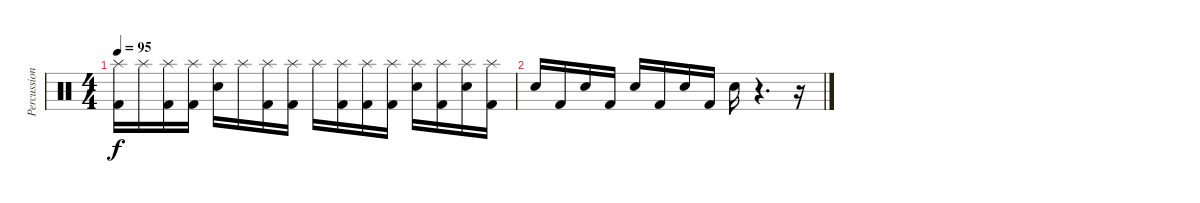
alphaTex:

\track ("Percussion" "Percussion") {instrument percussion}
\staff {score}
\articulation defaults
\ts (4 4)
\tempo 95
\clef neutral
\ks c
("Splash (hit)" "Kick (hit) 2").16{dy f} "Splash (hit)".16 ("Splash (hit)" "Kick (hit) 2").16 ("Splash (hit)" "Kick (hit) 2").16 ("Splash (hit)" "Electric Snare (hit)").16 "Splash (hit)".16 ("Splash (hit)" "Kick (hit) 2").16 ("Splash (hit)" "Kick (hit) 2").16 "Splash (hit)".16 ("Splash (hit)" "Kick (hit) 2").16 ("Splash (hit)" "Kick (hit) 2").16 ("Splash (hit)" "Kick (hit) 2").16 ("Splash (hit)" "Electric Snare (hit)").16 ("Splash (hit)" "Kick (hit) 2").16 ("Splash (hit)" "Electric Snare (hit)").16 ("Splash (hit)" "Kick (hit) 2").16 |
"Electric Snare (hit)".16 "Kick (hit) 2".16 "Electric Snare (hit)".16 "Kick (hit) 2".16 "Electric Snare (hit)".16 "Kick (hit) 2".16 "Electric Snare (hit)".16 "Kick (hit) 2".16 "Electric Snare (hit)".16 r.4{d} r.16
